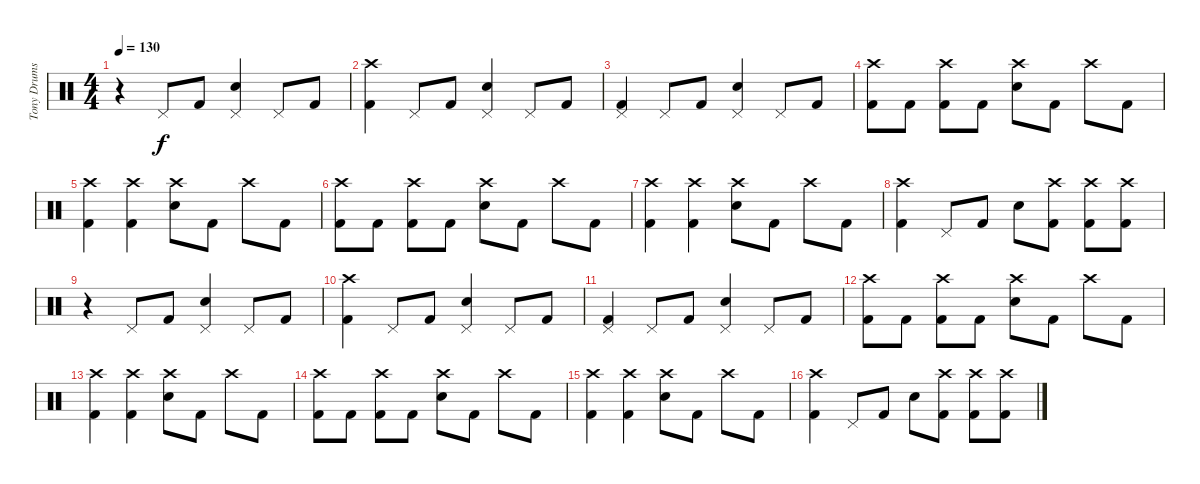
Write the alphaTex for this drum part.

\track ("Tony Drums" "Tony Drums") {instrument percussion}
\staff {score}
\articulation defaults
\ts (4 4)
\tempo 130
\clef neutral
\ks c
r.4{dy f} "Pedal Hi-Hat (hit)".8 "Kick (hit) 2".8 ("Pedal Hi-Hat (hit)" "Snare (hit) 2").4 "Pedal Hi-Hat (hit)".8 "Kick (hit) 2".8 |
("Crash high (hit)" "Kick (hit) 2").4 "Pedal Hi-Hat (hit)".8 "Kick (hit) 2".8 ("Pedal Hi-Hat (hit)" "Snare (hit) 2").4 "Pedal Hi-Hat (hit)".8 "Kick (hit) 2".8 |
("Pedal Hi-Hat (hit)" "Kick (hit) 2").4 "Pedal Hi-Hat (hit)".8 "Kick (hit) 2".8 ("Pedal Hi-Hat (hit)" "Snare (hit) 2").4 "Pedal Hi-Hat (hit)".8 "Kick (hit) 2".8 |
("Crash high (hit)" "Kick (hit) 2").8 "Kick (hit) 2".8 ("Crash high (hit)" "Kick (hit) 2").8 "Kick (hit) 2".8 ("Crash high (hit)" "Snare (hit) 2").8 "Kick (hit) 2".8 "Crash high (hit)".8 "Kick (hit) 2".8 |
("Crash high (hit)" "Kick (hit) 2").4 ("Crash high (hit)" "Kick (hit) 2").4 ("Crash high (hit)" "Snare (hit) 2").8 "Kick (hit) 2".8 "Crash high (hit)".8 "Kick (hit) 2".8 |
("Crash high (hit)" "Kick (hit) 2").8 "Kick (hit) 2".8 ("Crash high (hit)" "Kick (hit) 2").8 "Kick (hit) 2".8 ("Crash high (hit)" "Snare (hit) 2").8 "Kick (hit) 2".8 "Crash high (hit)".8 "Kick (hit) 2".8 |
("Crash high (hit)" "Kick (hit) 2").4 ("Crash high (hit)" "Kick (hit) 2").4 ("Crash high (hit)" "Snare (hit) 2").8 "Kick (hit) 2".8 "Crash high (hit)".8 "Kick (hit) 2".8 |
("Crash high (hit)" "Kick (hit) 2").4 "Pedal Hi-Hat (hit)".8 "Kick (hit) 2".8 "Snare (hit) 2".8 ("Crash high (hit)" "Kick (hit) 2").8 ("Crash high (hit)" "Kick (hit) 2").8 ("Crash high (hit)" "Kick (hit) 2").8 |
r.4 "Pedal Hi-Hat (hit)".8 "Kick (hit) 2".8 ("Pedal Hi-Hat (hit)" "Snare (hit) 2").4 "Pedal Hi-Hat (hit)".8 "Kick (hit) 2".8 |
("Crash high (hit)" "Kick (hit) 2").4 "Pedal Hi-Hat (hit)".8 "Kick (hit) 2".8 ("Pedal Hi-Hat (hit)" "Snare (hit) 2").4 "Pedal Hi-Hat (hit)".8 "Kick (hit) 2".8 |
("Pedal Hi-Hat (hit)" "Kick (hit) 2").4 "Pedal Hi-Hat (hit)".8 "Kick (hit) 2".8 ("Pedal Hi-Hat (hit)" "Snare (hit) 2").4 "Pedal Hi-Hat (hit)".8 "Kick (hit) 2".8 |
("Crash high (hit)" "Kick (hit) 2").8 "Kick (hit) 2".8 ("Crash high (hit)" "Kick (hit) 2").8 "Kick (hit) 2".8 ("Crash high (hit)" "Snare (hit) 2").8 "Kick (hit) 2".8 "Crash high (hit)".8 "Kick (hit) 2".8 |
("Crash high (hit)" "Kick (hit) 2").4 ("Crash high (hit)" "Kick (hit) 2").4 ("Crash high (hit)" "Snare (hit) 2").8 "Kick (hit) 2".8 "Crash high (hit)".8 "Kick (hit) 2".8 |
("Crash high (hit)" "Kick (hit) 2").8 "Kick (hit) 2".8 ("Crash high (hit)" "Kick (hit) 2").8 "Kick (hit) 2".8 ("Crash high (hit)" "Snare (hit) 2").8 "Kick (hit) 2".8 "Crash high (hit)".8 "Kick (hit) 2".8 |
("Crash high (hit)" "Kick (hit) 2").4 ("Crash high (hit)" "Kick (hit) 2").4 ("Crash high (hit)" "Snare (hit) 2").8 "Kick (hit) 2".8 "Crash high (hit)".8 "Kick (hit) 2".8 |
("Crash high (hit)" "Kick (hit) 2").4 "Pedal Hi-Hat (hit)".8 "Kick (hit) 2".8 "Snare (hit) 2".8 ("Crash high (hit)" "Kick (hit) 2").8 ("Crash high (hit)" "Kick (hit) 2").8 ("Crash high (hit)" "Kick (hit) 2").8
